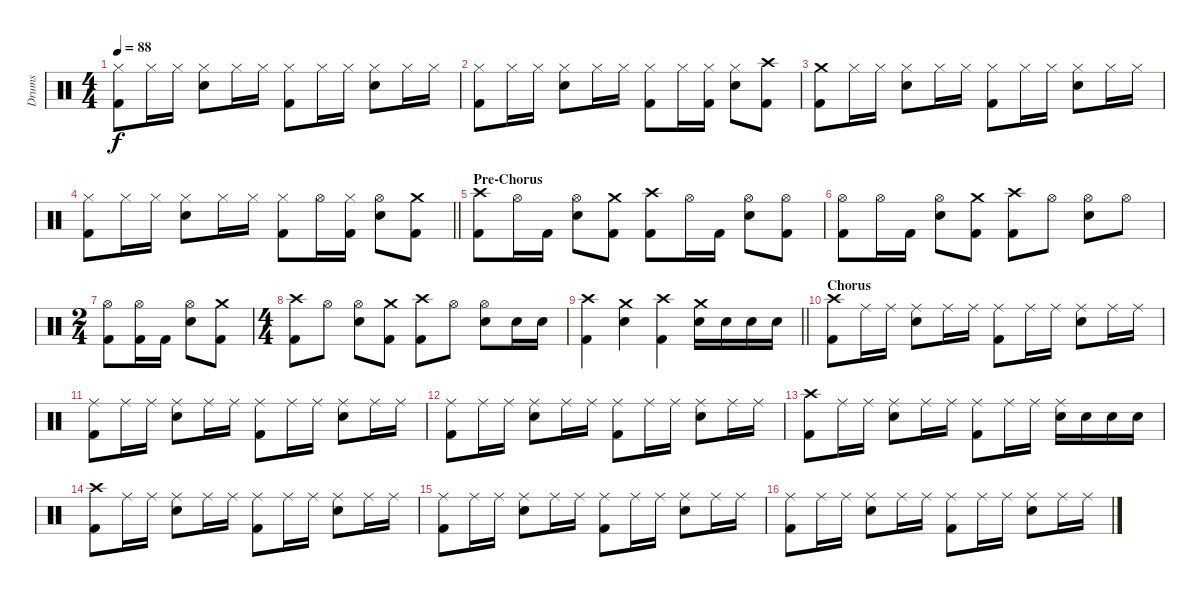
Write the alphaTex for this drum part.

\track ("Drums" "Drums") {instrument percussion}
\staff {score}
\articulation defaults
\ts (4 4)
\tempo 88
\clef neutral
\ks c
("Hi-Hat (closed)" "Kick (hit) 2").8{dy f} "Hi-Hat (closed)".16 "Hi-Hat (closed)".16 ("Hi-Hat (closed)" "Snare (hit) 2").8 "Hi-Hat (closed)".16 "Hi-Hat (closed)".16 ("Hi-Hat (closed)" "Kick (hit) 2").8 "Hi-Hat (closed)".16 "Hi-Hat (closed)".16 ("Hi-Hat (closed)" "Snare (hit) 2").8 "Hi-Hat (closed)".16 "Hi-Hat (closed)".16 |
("Hi-Hat (closed)" "Kick (hit) 2").8 "Hi-Hat (closed)".16 "Hi-Hat (closed)".16 ("Hi-Hat (closed)" "Snare (hit) 2").8 "Hi-Hat (closed)".16 "Hi-Hat (closed)".16 ("Hi-Hat (closed)" "Kick (hit) 2").8 "Hi-Hat (closed)".16 ("Hi-Hat (closed)" "Kick (hit) 2").16 ("Hi-Hat (closed)" "Snare (hit) 2").8 ("Crash high (hit)" "Kick (hit) 2").8 |
("Crash medium (hit)" "Kick (hit) 2").8 "Hi-Hat (closed)".16 "Hi-Hat (closed)".16 ("Hi-Hat (closed)" "Snare (hit) 2").8 "Hi-Hat (closed)".16 "Hi-Hat (closed)".16 ("Hi-Hat (closed)" "Kick (hit) 2").8 "Hi-Hat (closed)".16 "Hi-Hat (closed)".16 ("Hi-Hat (closed)" "Snare (hit) 2").8 "Hi-Hat (closed)".16 "Hi-Hat (closed)".16 |
\barLineRight lightlight
("Hi-Hat (closed)" "Kick (hit) 2").8 "Hi-Hat (closed)".16 "Hi-Hat (closed)".16 ("Hi-Hat (closed)" "Snare (hit) 2").8 "Hi-Hat (closed)".16 "Hi-Hat (closed)".16 ("Hi-Hat (closed)" "Kick (hit) 2").8 "Hi-Hat (open)".16 ("Hi-Hat (closed)" "Kick (hit) 2").16 ("Hi-Hat (open)" "Snare (hit) 2").8 ("Crash medium (hit)" "Kick (hit) 2").8 |
\section ("" "Pre-Chorus")
("Crash high (hit)" "Kick (hit) 2").8 "Hi-Hat (open)".16 "Kick (hit) 2".16 ("Hi-Hat (open)" "Snare (hit) 2").8 ("Crash medium (hit)" "Kick (hit) 2").8 ("Crash high (hit)" "Kick (hit) 2").8 "Hi-Hat (open)".16 "Kick (hit) 2".16 ("Hi-Hat (open)" "Snare (hit) 2").8 ("Hi-Hat (open)" "Kick (hit) 2").8 |
("Hi-Hat (open)" "Kick (hit) 2").8 "Hi-Hat (open)".16 "Kick (hit) 2".16 ("Hi-Hat (open)" "Snare (hit) 2").8 ("Crash medium (hit)" "Kick (hit) 2").8 ("Crash high (hit)" "Kick (hit) 2").8 "Hi-Hat (open)".8 ("Hi-Hat (open)" "Snare (hit) 2").8 "Hi-Hat (open)".8 |
\ts (2 4)
("Hi-Hat (open)" "Kick (hit) 2").8 ("Hi-Hat (open)" "Kick (hit) 2").16 "Kick (hit) 2".16 ("Hi-Hat (open)" "Snare (hit) 2").8 ("Crash medium (hit)" "Kick (hit) 2").8 |
\ts (4 4)
("Crash high (hit)" "Kick (hit) 2").8 "Hi-Hat (open)".8 ("Hi-Hat (open)" "Snare (hit) 2").8 ("Crash medium (hit)" "Kick (hit) 2").8 ("Crash high (hit)" "Kick (hit) 2").8 "Hi-Hat (open)".8 ("Hi-Hat (open)" "Snare (hit) 2").8 "Snare (hit) 2".16 "Snare (hit) 2".16 |
\barLineRight lightlight
("Crash high (hit)" "Kick (hit) 2").4 ("Crash medium (hit)" "Snare (hit) 2").4 ("Crash high (hit)" "Kick (hit) 2").4 ("Crash medium (hit)" "Snare (hit) 2").16 "Snare (hit) 2".16 "Snare (hit) 2".16 "Snare (hit) 2".16 |
\section ("" "Chorus")
("Crash high (hit)" "Kick (hit) 2").8 "Ride (middle)".16 "Ride (middle)".16 ("Ride (middle)" "Snare (hit) 2").8 "Ride (middle)".16 "Ride (middle)".16 ("Ride (middle)" "Kick (hit) 2").8 "Ride (middle)".16 "Ride (middle)".16 ("Ride (middle)" "Snare (hit) 2").8 "Ride (middle)".16 "Ride (middle)".16 |
("Ride (middle)" "Kick (hit) 2").8 "Ride (middle)".16 "Ride (middle)".16 ("Ride (middle)" "Snare (hit) 2").8 "Ride (middle)".16 "Ride (middle)".16 ("Ride (middle)" "Kick (hit) 2").8 "Ride (middle)".16 "Ride (middle)".16 ("Ride (middle)" "Snare (hit) 2").8 "Ride (middle)".16 "Ride (middle)".16 |
("Ride (middle)" "Kick (hit) 2").8 "Ride (middle)".16 "Ride (middle)".16 ("Ride (middle)" "Snare (hit) 2").8 "Ride (middle)".16 "Ride (middle)".16 ("Ride (middle)" "Kick (hit) 2").8 "Ride (middle)".16 "Ride (middle)".16 ("Ride (middle)" "Snare (hit) 2").8 "Ride (middle)".16 "Ride (middle)".16 |
("Crash high (hit)" "Kick (hit) 2").8 "Ride (middle)".16 "Ride (middle)".16 ("Ride (middle)" "Snare (hit) 2").8 "Ride (middle)".16 "Ride (middle)".16 ("Ride (middle)" "Kick (hit) 2").8 "Ride (middle)".16 "Ride (middle)".16 ("Ride (middle)" "Snare (hit) 2").16 "Snare (hit) 2".16 "Snare (hit) 2".16 "Snare (hit) 2".16 |
("Crash high (hit)" "Kick (hit) 2").8 "Ride (middle)".16 "Ride (middle)".16 ("Ride (middle)" "Snare (hit) 2").8 "Ride (middle)".16 "Ride (middle)".16 ("Ride (middle)" "Kick (hit) 2").8 "Ride (middle)".16 "Ride (middle)".16 ("Ride (middle)" "Snare (hit) 2").8 "Ride (middle)".16 "Ride (middle)".16 |
("Ride (middle)" "Kick (hit) 2").8 "Ride (middle)".16 "Ride (middle)".16 ("Ride (middle)" "Snare (hit) 2").8 "Ride (middle)".16 "Ride (middle)".16 ("Ride (middle)" "Kick (hit) 2").8 "Ride (middle)".16 "Ride (middle)".16 ("Ride (middle)" "Snare (hit) 2").8 "Ride (middle)".16 "Ride (middle)".16 |
("Ride (middle)" "Kick (hit) 2").8 "Ride (middle)".16 "Ride (middle)".16 ("Ride (middle)" "Snare (hit) 2").8 "Ride (middle)".16 "Ride (middle)".16 ("Ride (middle)" "Kick (hit) 2").8 "Ride (middle)".16 "Ride (middle)".16 ("Ride (middle)" "Snare (hit) 2").8 "Ride (middle)".16 "Ride (middle)".16
